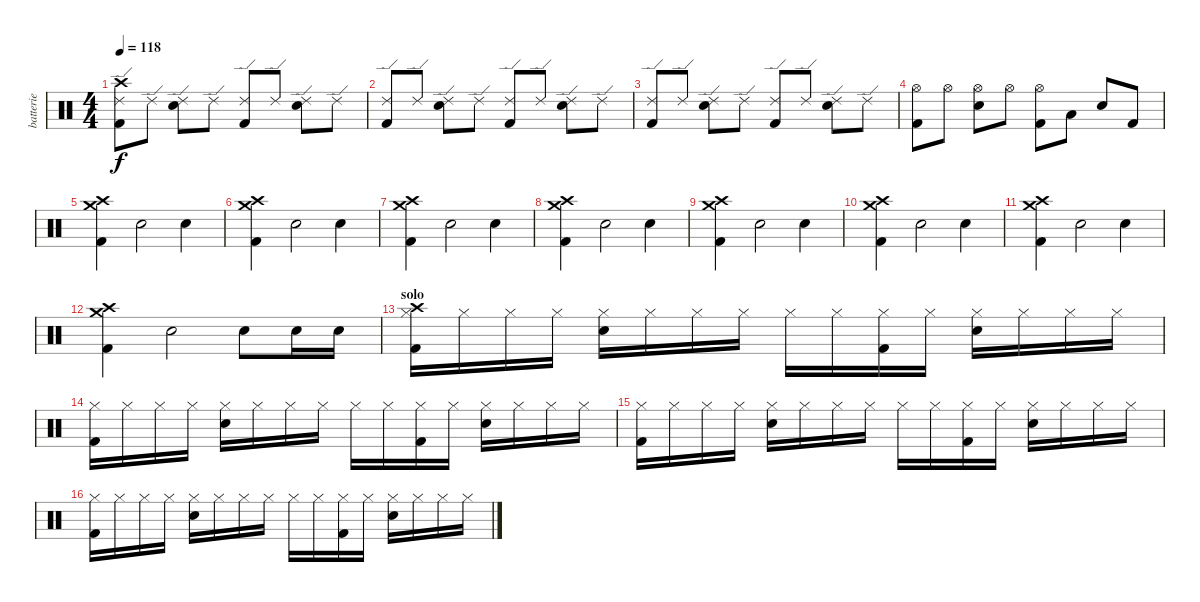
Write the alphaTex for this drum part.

\track ("batterie" "batterie") {instrument percussion}
\staff {score}
\articulation defaults
\ts (4 4)
\tempo 118
\clef neutral
\ks c
("Crash high (hit)" "Ride (edge) 2" "Kick (hit) 2").8{dy f} "Ride (edge) 2".8 ("Ride (edge) 2" "Electric Snare (hit)").8 "Ride (edge) 2".8 ("Ride (edge) 2" "Kick (hit) 2").8 "Ride (edge) 2".8 ("Ride (edge) 2" "Electric Snare (hit)").8 "Ride (edge) 2".8 |
("Ride (edge) 2" "Kick (hit) 2").8 "Ride (edge) 2".8 ("Ride (edge) 2" "Electric Snare (hit)").8 "Ride (edge) 2".8 ("Ride (edge) 2" "Kick (hit) 2").8 "Ride (edge) 2".8 ("Ride (edge) 2" "Electric Snare (hit)").8 "Ride (edge) 2".8 |
("Ride (edge) 2" "Kick (hit) 2").8 "Ride (edge) 2".8 ("Ride (edge) 2" "Electric Snare (hit)").8 "Ride (edge) 2".8 ("Ride (edge) 2" "Kick (hit) 2").8 "Ride (edge) 2".8 ("Ride (edge) 2" "Electric Snare (hit)").8 "Ride (edge) 2".8 |
("Hi-Hat (open)" "Kick (hit) 2").8 "Hi-Hat (open)".8 ("Hi-Hat (open)" "Electric Snare (hit)").8 "Hi-Hat (open)".8 ("Hi-Hat (open)" "Kick (hit) 2").8 "Low Tom (hit)".8 "Electric Snare (hit)".8 "Kick (hit) 2".8 |
("Crash high (hit)" "Crash medium (hit)" "Kick (hit) 2").4 "Electric Snare (hit)".2 "Electric Snare (hit)".4 |
("Crash high (hit)" "Crash medium (hit)" "Kick (hit) 2").4 "Electric Snare (hit)".2 "Electric Snare (hit)".4 |
("Crash high (hit)" "Crash medium (hit)" "Kick (hit) 2").4 "Electric Snare (hit)".2 "Electric Snare (hit)".4 |
("Crash high (hit)" "Crash medium (hit)" "Kick (hit) 2").4 "Electric Snare (hit)".2 "Electric Snare (hit)".4 |
("Crash high (hit)" "Crash medium (hit)" "Kick (hit) 2").4 "Electric Snare (hit)".2 "Electric Snare (hit)".4 |
("Crash high (hit)" "Crash medium (hit)" "Kick (hit) 2").4 "Electric Snare (hit)".2 "Electric Snare (hit)".4 |
("Crash high (hit)" "Crash medium (hit)" "Kick (hit) 2").4 "Electric Snare (hit)".2 "Electric Snare (hit)".4 |
("Crash high (hit)" "Crash medium (hit)" "Kick (hit) 2").4 "Electric Snare (hit)".2 "Electric Snare (hit)".8 "Electric Snare (hit)".16 "Electric Snare (hit)".16 |
\section ("" "solo")
("Crash high (hit)" "Hi-Hat (closed)" "Kick (hit) 2").16 "Hi-Hat (closed)".16 "Hi-Hat (closed)".16 "Hi-Hat (closed)".16 ("Hi-Hat (closed)" "Electric Snare (hit)").16 "Hi-Hat (closed)".16 "Hi-Hat (closed)".16 "Hi-Hat (closed)".16 "Hi-Hat (closed)".16 "Hi-Hat (closed)".16 ("Hi-Hat (closed)" "Kick (hit) 2").16 "Hi-Hat (closed)".16 ("Hi-Hat (closed)" "Electric Snare (hit)").16 "Hi-Hat (closed)".16 "Hi-Hat (closed)".16 "Hi-Hat (closed)".16 |
("Hi-Hat (closed)" "Kick (hit) 2").16 "Hi-Hat (closed)".16 "Hi-Hat (closed)".16 "Hi-Hat (closed)".16 ("Hi-Hat (closed)" "Electric Snare (hit)").16 "Hi-Hat (closed)".16 "Hi-Hat (closed)".16 "Hi-Hat (closed)".16 "Hi-Hat (closed)".16 "Hi-Hat (closed)".16 ("Hi-Hat (closed)" "Kick (hit) 2").16 "Hi-Hat (closed)".16 ("Hi-Hat (closed)" "Electric Snare (hit)").16 "Hi-Hat (closed)".16 "Hi-Hat (closed)".16 "Hi-Hat (closed)".16 |
("Hi-Hat (closed)" "Kick (hit) 2").16 "Hi-Hat (closed)".16 "Hi-Hat (closed)".16 "Hi-Hat (closed)".16 ("Hi-Hat (closed)" "Electric Snare (hit)").16 "Hi-Hat (closed)".16 "Hi-Hat (closed)".16 "Hi-Hat (closed)".16 "Hi-Hat (closed)".16 "Hi-Hat (closed)".16 ("Hi-Hat (closed)" "Kick (hit) 2").16 "Hi-Hat (closed)".16 ("Hi-Hat (closed)" "Electric Snare (hit)").16 "Hi-Hat (closed)".16 "Hi-Hat (closed)".16 "Hi-Hat (closed)".16 |
("Hi-Hat (closed)" "Kick (hit) 2").16 "Hi-Hat (closed)".16 "Hi-Hat (closed)".16 "Hi-Hat (closed)".16 ("Hi-Hat (closed)" "Electric Snare (hit)").16 "Hi-Hat (closed)".16 "Hi-Hat (closed)".16 "Hi-Hat (closed)".16 "Hi-Hat (closed)".16 "Hi-Hat (closed)".16 ("Hi-Hat (closed)" "Kick (hit) 2").16 "Hi-Hat (closed)".16 ("Hi-Hat (closed)" "Electric Snare (hit)").16 "Hi-Hat (closed)".16 "Hi-Hat (closed)".16 "Hi-Hat (closed)".16
